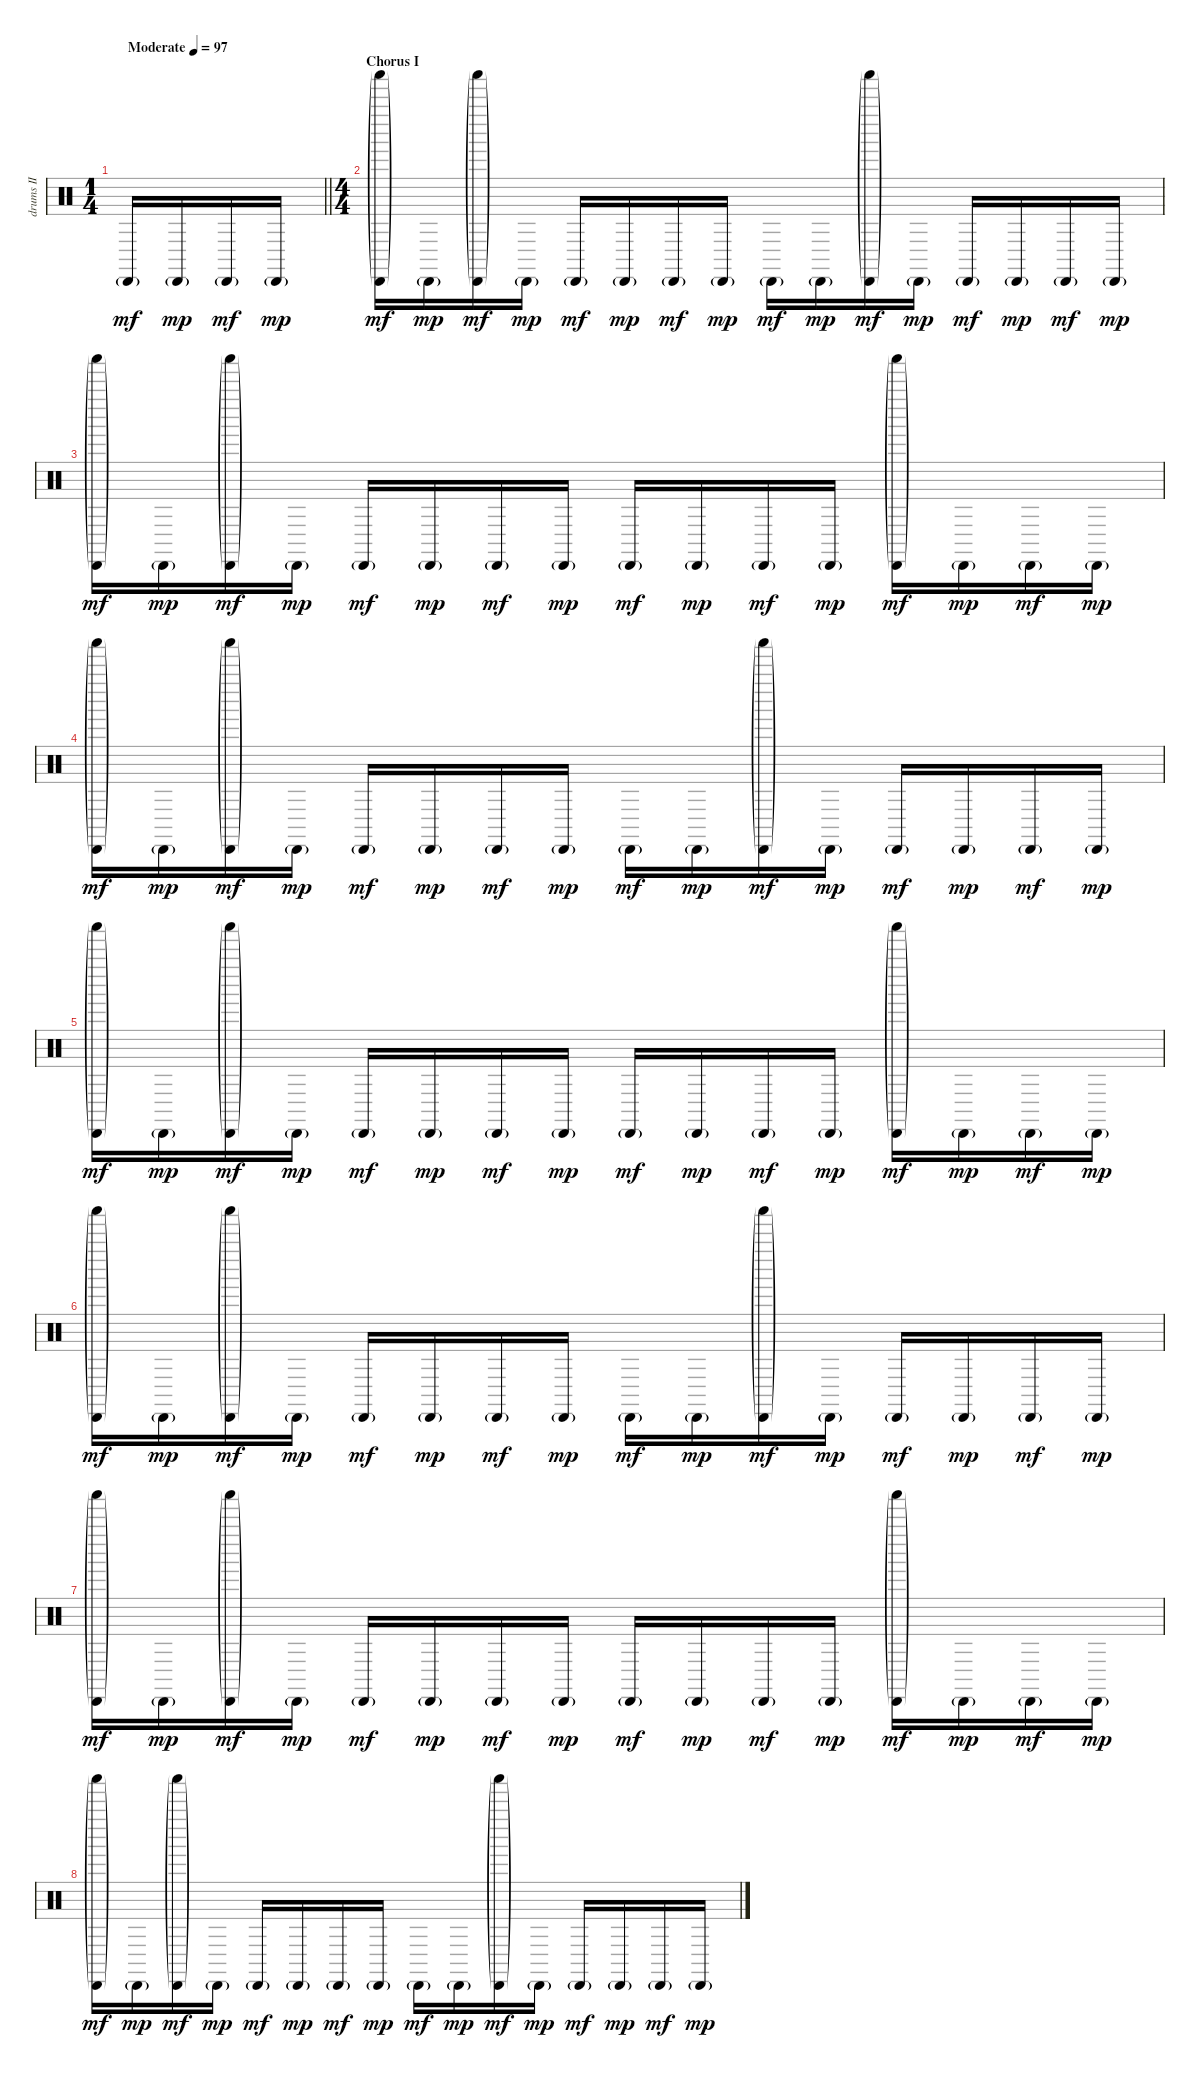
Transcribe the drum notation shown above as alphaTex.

\track ("drums II" "drums II") {instrument percussion}
\staff {score}
\articulation defaults
\ts (1 4)
\tempo (97 "Moderate")
\clef neutral
\barLineRight lightlight
\ks c "Cabasa (hit)"{g}.16{dy mf} "Cabasa (hit)"{g}.16{dy mp} "Cabasa (hit)"{g}.16{dy mf} "Cabasa (hit)"{g}.16{dy mp}
|
\ts (4 4)
\section ("" "Chorus I")
("Shaker (hit)"{g} "Cabasa (hit)"{g}).16{dy mf} "Cabasa (hit)"{g}.16{dy mp} ("Shaker (hit)"{g} "Cabasa (hit)"{g}).16{dy mf} "Cabasa (hit)"{g}.16{dy mp} "Cabasa (hit)"{g}.16{dy mf} "Cabasa (hit)"{g}.16{dy mp} "Cabasa (hit)"{g}.16{dy mf} "Cabasa (hit)"{g}.16{dy mp} "Cabasa (hit)"{g}.16{dy mf} "Cabasa (hit)"{g}.16{dy mp} ("Shaker (hit)"{g} "Cabasa (hit)"{g}).16{dy mf} "Cabasa (hit)"{g}.16{dy mp} "Cabasa (hit)"{g}.16{dy mf} "Cabasa (hit)"{g}.16{dy mp} "Cabasa (hit)"{g}.16{dy mf} "Cabasa (hit)"{g}.16{dy mp} |
("Shaker (hit)"{g} "Cabasa (hit)"{g}).16{dy mf} "Cabasa (hit)"{g}.16{dy mp} ("Shaker (hit)"{g} "Cabasa (hit)"{g}).16{dy mf} "Cabasa (hit)"{g}.16{dy mp} "Cabasa (hit)"{g}.16{dy mf} "Cabasa (hit)"{g}.16{dy mp} "Cabasa (hit)"{g}.16{dy mf} "Cabasa (hit)"{g}.16{dy mp} "Cabasa (hit)"{g}.16{dy mf} "Cabasa (hit)"{g}.16{dy mp} "Cabasa (hit)"{g}.16{dy mf} "Cabasa (hit)"{g}.16{dy mp} ("Shaker (hit)"{g} "Cabasa (hit)"{g}).16{dy mf} "Cabasa (hit)"{g}.16{dy mp} "Cabasa (hit)"{g}.16{dy mf} "Cabasa (hit)"{g}.16{dy mp} |
("Shaker (hit)"{g} "Cabasa (hit)"{g}).16{dy mf} "Cabasa (hit)"{g}.16{dy mp} ("Shaker (hit)"{g} "Cabasa (hit)"{g}).16{dy mf} "Cabasa (hit)"{g}.16{dy mp} "Cabasa (hit)"{g}.16{dy mf} "Cabasa (hit)"{g}.16{dy mp} "Cabasa (hit)"{g}.16{dy mf} "Cabasa (hit)"{g}.16{dy mp} "Cabasa (hit)"{g}.16{dy mf} "Cabasa (hit)"{g}.16{dy mp} ("Shaker (hit)"{g} "Cabasa (hit)"{g}).16{dy mf} "Cabasa (hit)"{g}.16{dy mp} "Cabasa (hit)"{g}.16{dy mf} "Cabasa (hit)"{g}.16{dy mp} "Cabasa (hit)"{g}.16{dy mf} "Cabasa (hit)"{g}.16{dy mp} |
("Shaker (hit)"{g} "Cabasa (hit)"{g}).16{dy mf} "Cabasa (hit)"{g}.16{dy mp} ("Shaker (hit)"{g} "Cabasa (hit)"{g}).16{dy mf} "Cabasa (hit)"{g}.16{dy mp} "Cabasa (hit)"{g}.16{dy mf} "Cabasa (hit)"{g}.16{dy mp} "Cabasa (hit)"{g}.16{dy mf} "Cabasa (hit)"{g}.16{dy mp} "Cabasa (hit)"{g}.16{dy mf} "Cabasa (hit)"{g}.16{dy mp} "Cabasa (hit)"{g}.16{dy mf} "Cabasa (hit)"{g}.16{dy mp} ("Shaker (hit)"{g} "Cabasa (hit)"{g}).16{dy mf} "Cabasa (hit)"{g}.16{dy mp} "Cabasa (hit)"{g}.16{dy mf} "Cabasa (hit)"{g}.16{dy mp} |
("Shaker (hit)"{g} "Cabasa (hit)"{g}).16{dy mf} "Cabasa (hit)"{g}.16{dy mp} ("Shaker (hit)"{g} "Cabasa (hit)"{g}).16{dy mf} "Cabasa (hit)"{g}.16{dy mp} "Cabasa (hit)"{g}.16{dy mf} "Cabasa (hit)"{g}.16{dy mp} "Cabasa (hit)"{g}.16{dy mf} "Cabasa (hit)"{g}.16{dy mp} "Cabasa (hit)"{g}.16{dy mf} "Cabasa (hit)"{g}.16{dy mp} ("Shaker (hit)"{g} "Cabasa (hit)"{g}).16{dy mf} "Cabasa (hit)"{g}.16{dy mp} "Cabasa (hit)"{g}.16{dy mf} "Cabasa (hit)"{g}.16{dy mp} "Cabasa (hit)"{g}.16{dy mf} "Cabasa (hit)"{g}.16{dy mp} |
("Shaker (hit)"{g} "Cabasa (hit)"{g}).16{dy mf} "Cabasa (hit)"{g}.16{dy mp} ("Shaker (hit)"{g} "Cabasa (hit)"{g}).16{dy mf} "Cabasa (hit)"{g}.16{dy mp} "Cabasa (hit)"{g}.16{dy mf} "Cabasa (hit)"{g}.16{dy mp} "Cabasa (hit)"{g}.16{dy mf} "Cabasa (hit)"{g}.16{dy mp} "Cabasa (hit)"{g}.16{dy mf} "Cabasa (hit)"{g}.16{dy mp} "Cabasa (hit)"{g}.16{dy mf} "Cabasa (hit)"{g}.16{dy mp} ("Shaker (hit)"{g} "Cabasa (hit)"{g}).16{dy mf} "Cabasa (hit)"{g}.16{dy mp} "Cabasa (hit)"{g}.16{dy mf} "Cabasa (hit)"{g}.16{dy mp} |
("Shaker (hit)"{g} "Cabasa (hit)"{g}).16{dy mf} "Cabasa (hit)"{g}.16{dy mp} ("Shaker (hit)"{g} "Cabasa (hit)"{g}).16{dy mf} "Cabasa (hit)"{g}.16{dy mp} "Cabasa (hit)"{g}.16{dy mf} "Cabasa (hit)"{g}.16{dy mp} "Cabasa (hit)"{g}.16{dy mf} "Cabasa (hit)"{g}.16{dy mp} "Cabasa (hit)"{g}.16{dy mf} "Cabasa (hit)"{g}.16{dy mp} ("Shaker (hit)"{g} "Cabasa (hit)"{g}).16{dy mf} "Cabasa (hit)"{g}.16{dy mp} "Cabasa (hit)"{g}.16{dy mf} "Cabasa (hit)"{g}.16{dy mp} "Cabasa (hit)"{g}.16{dy mf} "Cabasa (hit)"{g}.16{dy mp}
